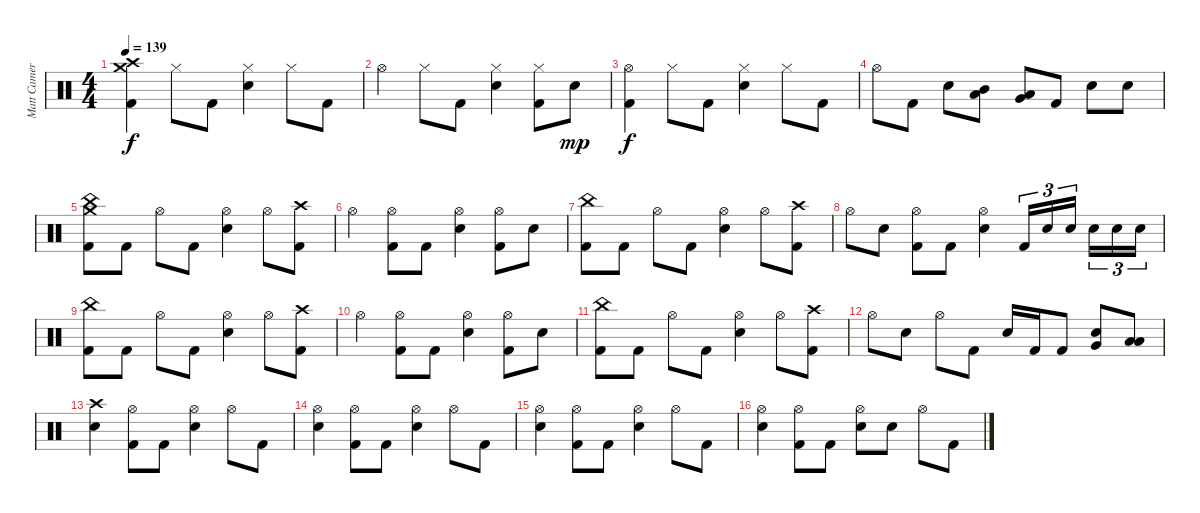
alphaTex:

\track ("Matt Cameron" "Matt Camer") {instrument percussion}
\staff {score}
\articulation defaults
\ts (4 4)
\tempo 139
\clef neutral
\ks c
("Crash high (hit)" "Crash medium (hit)" "Kick (hit) 2").4{dy f} "Hi-Hat (closed)".8 "Kick (hit) 2".8 ("Hi-Hat (closed)" "Snare (hit) 2").4 "Hi-Hat (closed)".8 "Kick (hit) 2".8 |
"Hi-Hat (open)".4 "Hi-Hat (closed)".8 "Kick (hit) 2".8 ("Hi-Hat (closed)" "Snare (hit) 2").4 ("Hi-Hat (closed)" "Kick (hit) 2").8 "Snare (hit) 2".8{dy mp} |
("Hi-Hat (open)" "Kick (hit) 2").4{dy f} "Hi-Hat (closed)".8 "Kick (hit) 2".8 ("Hi-Hat (closed)" "Snare (hit) 2").4 "Hi-Hat (closed)".8 "Kick (hit) 2".8 |
"Hi-Hat (open)".8 "Kick (hit) 2".8 "Snare (hit) 2".8 ("Mid Tom (hit)" "Low Tom (hit)").8 ("Very Low Tom (hit)" "Low Tom (hit)").8 "Kick (hit) 2".8 "Snare (hit) 2".8 "Snare (hit) 2".8 |
("Crash medium (hit)" "China (hit)" "Kick (hit) 2").8 "Kick (hit) 2".8 "Hi-Hat (open)".8 "Kick (hit) 2".8 ("Hi-Hat (open)" "Snare (hit) 2").4 "Hi-Hat (open)".8 ("Crash high (hit)" "Kick (hit) 2").8 |
"Hi-Hat (open)".4 ("Hi-Hat (open)" "Kick (hit) 2").8 "Kick (hit) 2".8 ("Hi-Hat (open)" "Snare (hit) 2").4 ("Hi-Hat (open)" "Kick (hit) 2").8 "Snare (hit) 2".8 |
("China (hit)" "Kick (hit) 2").8 "Kick (hit) 2".8 "Hi-Hat (open)".8 "Kick (hit) 2".8 ("Hi-Hat (open)" "Snare (hit) 2").4 "Hi-Hat (open)".8 ("Crash high (hit)" "Kick (hit) 2").8 |
"Hi-Hat (open)".8 "Snare (hit) 2".8 ("Hi-Hat (open)" "Kick (hit) 2").8 "Kick (hit) 2".8 ("Hi-Hat (open)" "Snare (hit) 2").4 "Kick (hit) 2".16{tu (3 2)} "Snare (hit) 2".16{tu (3 2)} "Snare (hit) 2".16{tu (3 2)} "Snare (hit) 2".16{tu (3 2)} "Snare (hit) 2".16{tu (3 2)} "Snare (hit) 2".16{tu (3 2)} |
("China (hit)" "Kick (hit) 2").8 "Kick (hit) 2".8 "Hi-Hat (open)".8 "Kick (hit) 2".8 ("Hi-Hat (open)" "Snare (hit) 2").4 "Hi-Hat (open)".8 ("Crash high (hit)" "Kick (hit) 2").8 |
"Hi-Hat (open)".4 ("Hi-Hat (open)" "Kick (hit) 2").8 "Kick (hit) 2".8 ("Hi-Hat (open)" "Snare (hit) 2").4 ("Hi-Hat (open)" "Kick (hit) 2").8 "Snare (hit) 2".8 |
("China (hit)" "Kick (hit) 2").8 "Kick (hit) 2".8 "Hi-Hat (open)".8 "Kick (hit) 2".8 ("Hi-Hat (open)" "Snare (hit) 2").4 "Hi-Hat (open)".8 ("Crash high (hit)" "Kick (hit) 2").8 |
"Hi-Hat (open)".8 "Snare (hit) 2".8 "Hi-Hat (open)".8 "Kick (hit) 2".8 "Snare (hit) 2".16 "Kick (hit) 2".16 "Kick (hit) 2".8 ("Snare (hit) 2" "Very Low Tom (hit)").8 ("Low Tom (hit)" "Low Floor Tom (hit)").8 |
("Crash high (hit)" "Snare (hit) 2").4 ("Hi-Hat (open)" "Kick (hit) 2").8 "Kick (hit) 2".8 ("Hi-Hat (open)" "Snare (hit) 2").4 "Hi-Hat (open)".8 "Kick (hit) 2".8 |
("Hi-Hat (open)" "Snare (hit) 2").4 ("Hi-Hat (open)" "Kick (hit) 2").8 "Kick (hit) 2".8 ("Hi-Hat (open)" "Snare (hit) 2").4 "Hi-Hat (open)".8 "Kick (hit) 2".8 |
("Hi-Hat (open)" "Snare (hit) 2").4 ("Hi-Hat (open)" "Kick (hit) 2").8 "Kick (hit) 2".8 ("Hi-Hat (open)" "Snare (hit) 2").4 "Hi-Hat (open)".8 "Kick (hit) 2".8 |
("Hi-Hat (open)" "Snare (hit) 2").4 ("Hi-Hat (open)" "Kick (hit) 2").8 "Kick (hit) 2".8 ("Hi-Hat (open)" "Snare (hit) 2").8 "Snare (hit) 2".8 "Hi-Hat (open)".8 "Kick (hit) 2".8
